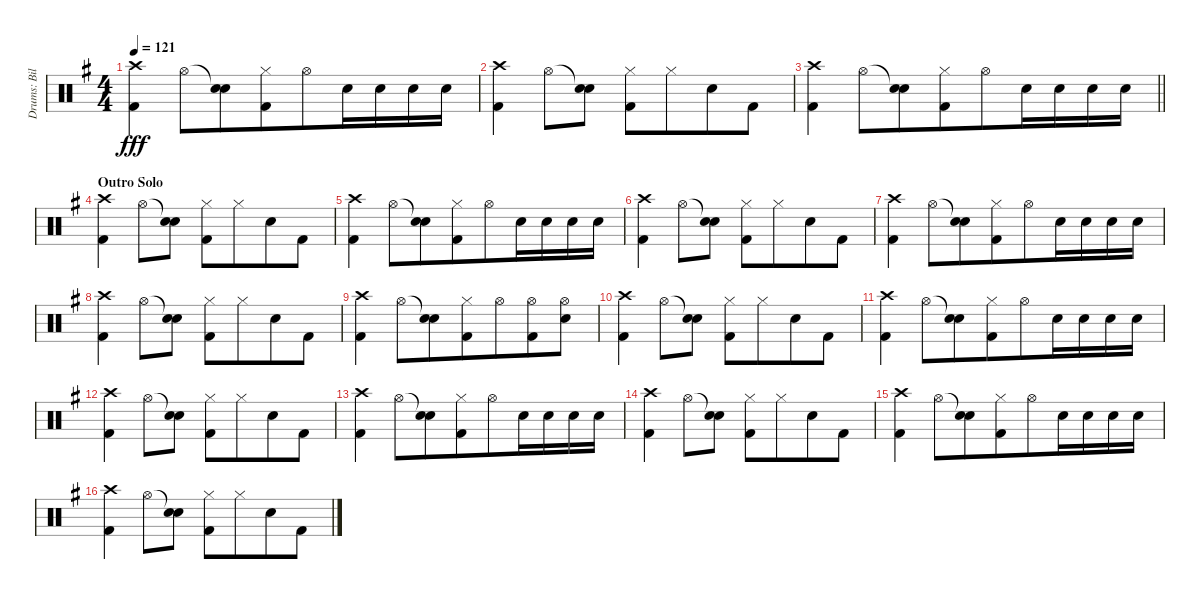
\track ("Drums: Bill" "Drums: Bil") {instrument percussion}
\staff {score}
\articulation defaults
\ts (4 4)
\tempo 121
\clef neutral
\ks g
("Crash high (hit)" "Kick (hit) 2").4{dy fff beam merge} "Hi-Hat (open)".8{beam merge} ("Snare (hit)"{t} "Electric Snare (hit)").8{beam merge} ("Hi-Hat (closed)" "Kick (hit) 2").8{beam merge} "Hi-Hat (open)".8{beam merge} "Electric Snare (hit)".16{beam merge} "Electric Snare (hit)".16{beam merge} "Electric Snare (hit)".16{beam merge} "Electric Snare (hit)".16 |
("Crash high (hit)" "Kick (hit) 2").4{beam merge} "Hi-Hat (open)".8 ("Snare (hit)"{t} "Electric Snare (hit)").8 ("Hi-Hat (closed)" "Kick (hit) 2").8 "Hi-Hat (closed)".8{beam merge} "Electric Snare (hit)".8 "Kick (hit) 2".8 |
\barLineRight lightlight
("Crash high (hit)" "Kick (hit) 2").4{beam merge} "Hi-Hat (open)".8{beam merge} ("Snare (hit)"{t} "Electric Snare (hit)").8{beam merge} ("Hi-Hat (closed)" "Kick (hit) 2").8{beam merge} "Hi-Hat (open)".8{beam merge} "Electric Snare (hit)".16{beam merge} "Electric Snare (hit)".16{beam merge} "Electric Snare (hit)".16{beam merge} "Electric Snare (hit)".16 |
\section ("" "Outro Solo")
("Crash high (hit)" "Kick (hit) 2").4{beam merge} "Hi-Hat (open)".8 ("Snare (hit)"{t} "Electric Snare (hit)").8 ("Hi-Hat (closed)" "Kick (hit) 2").8 "Hi-Hat (closed)".8{beam merge} "Electric Snare (hit)".8 "Kick (hit) 2".8 |
("Crash high (hit)" "Kick (hit) 2").4{beam merge} "Hi-Hat (open)".8{beam merge} ("Snare (hit)"{t} "Electric Snare (hit)").8{beam merge} ("Hi-Hat (closed)" "Kick (hit) 2").8{beam merge} "Hi-Hat (open)".8{beam merge} "Electric Snare (hit)".16{beam merge} "Electric Snare (hit)".16{beam merge} "Electric Snare (hit)".16{beam merge} "Electric Snare (hit)".16 |
("Crash high (hit)" "Kick (hit) 2").4{beam merge} "Hi-Hat (open)".8 ("Snare (hit)"{t} "Electric Snare (hit)").8 ("Hi-Hat (closed)" "Kick (hit) 2").8 "Hi-Hat (closed)".8{beam merge} "Electric Snare (hit)".8 "Kick (hit) 2".8 |
("Crash high (hit)" "Kick (hit) 2").4{beam merge} "Hi-Hat (open)".8{beam merge} ("Snare (hit)"{t} "Electric Snare (hit)").8{beam merge} ("Hi-Hat (closed)" "Kick (hit) 2").8{beam merge} "Hi-Hat (open)".8{beam merge} "Electric Snare (hit)".16{beam merge} "Electric Snare (hit)".16{beam merge} "Electric Snare (hit)".16{beam merge} "Electric Snare (hit)".16 |
("Crash high (hit)" "Kick (hit) 2").4{beam merge} "Hi-Hat (open)".8 ("Snare (hit)"{t} "Electric Snare (hit)").8 ("Hi-Hat (closed)" "Kick (hit) 2").8 "Hi-Hat (closed)".8{beam merge} "Electric Snare (hit)".8 "Kick (hit) 2".8 |
("Crash high (hit)" "Kick (hit) 2").4{beam merge} "Hi-Hat (open)".8{beam merge} ("Snare (hit)"{t} "Electric Snare (hit)").8{beam merge} ("Hi-Hat (closed)" "Kick (hit) 2").8{beam merge} "Hi-Hat (open)".8{beam merge} ("Hi-Hat (open)" "Kick (hit) 2").8{beam merge} ("Hi-Hat (open)" "Snare (hit) 2").8 |
("Crash high (hit)" "Kick (hit) 2").4{beam merge} "Hi-Hat (open)".8 ("Snare (hit)"{t} "Electric Snare (hit)").8 ("Hi-Hat (closed)" "Kick (hit) 2").8 "Hi-Hat (closed)".8{beam merge} "Electric Snare (hit)".8 "Kick (hit) 2".8 |
("Crash high (hit)" "Kick (hit) 2").4{beam merge} "Hi-Hat (open)".8{beam merge} ("Snare (hit)"{t} "Electric Snare (hit)").8{beam merge} ("Hi-Hat (closed)" "Kick (hit) 2").8{beam merge} "Hi-Hat (open)".8{beam merge} "Electric Snare (hit)".16{beam merge} "Electric Snare (hit)".16{beam merge} "Electric Snare (hit)".16{beam merge} "Electric Snare (hit)".16 |
("Crash high (hit)" "Kick (hit) 2").4{beam merge} "Hi-Hat (open)".8 ("Snare (hit)"{t} "Electric Snare (hit)").8 ("Hi-Hat (closed)" "Kick (hit) 2").8 "Hi-Hat (closed)".8{beam merge} "Electric Snare (hit)".8 "Kick (hit) 2".8 |
("Crash high (hit)" "Kick (hit) 2").4{beam merge} "Hi-Hat (open)".8{beam merge} ("Snare (hit)"{t} "Electric Snare (hit)").8{beam merge} ("Hi-Hat (closed)" "Kick (hit) 2").8{beam merge} "Hi-Hat (open)".8{beam merge} "Electric Snare (hit)".16{beam merge} "Electric Snare (hit)".16{beam merge} "Electric Snare (hit)".16{beam merge} "Electric Snare (hit)".16 |
("Crash high (hit)" "Kick (hit) 2").4{beam merge} "Hi-Hat (open)".8 ("Snare (hit)"{t} "Electric Snare (hit)").8 ("Hi-Hat (closed)" "Kick (hit) 2").8 "Hi-Hat (closed)".8{beam merge} "Electric Snare (hit)".8 "Kick (hit) 2".8 |
("Crash high (hit)" "Kick (hit) 2").4{beam merge} "Hi-Hat (open)".8{beam merge} ("Snare (hit)"{t} "Electric Snare (hit)").8{beam merge} ("Hi-Hat (closed)" "Kick (hit) 2").8{beam merge} "Hi-Hat (open)".8{beam merge} "Electric Snare (hit)".16{beam merge} "Electric Snare (hit)".16{beam merge} "Electric Snare (hit)".16{beam merge} "Electric Snare (hit)".16 |
("Crash high (hit)" "Kick (hit) 2").4{beam merge} "Hi-Hat (open)".8 ("Snare (hit)"{t} "Electric Snare (hit)").8 ("Hi-Hat (closed)" "Kick (hit) 2").8 "Hi-Hat (closed)".8{beam merge} "Electric Snare (hit)".8 "Kick (hit) 2".8
